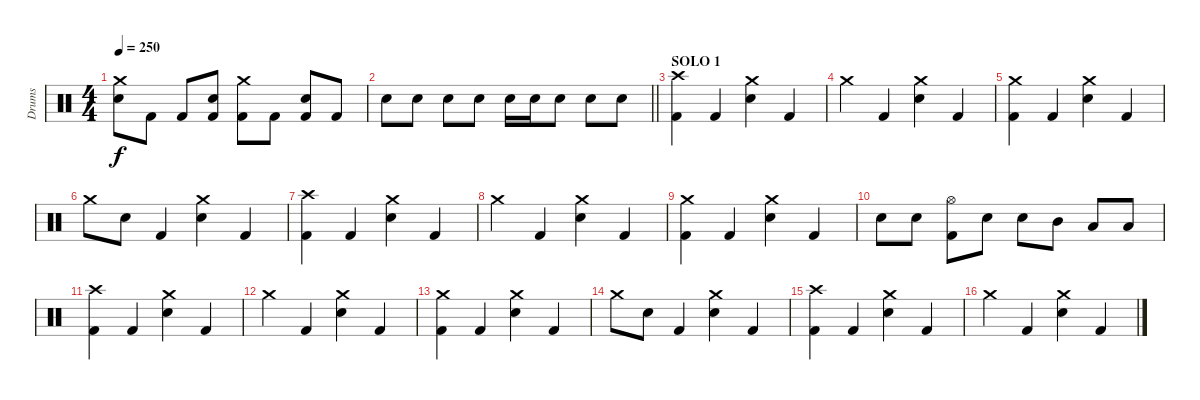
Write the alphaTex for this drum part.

\track ("Drums" "Drums") {instrument percussion}
\staff {score}
\articulation defaults
\ts (4 4)
\tempo 250
\clef neutral
\ks c
("Crash medium (hit)" "Electric Snare (hit)").8{dy f} "Kick (hit) 2".8 "Kick (hit) 2".8 ("Electric Snare (hit)" "Kick (hit) 2").8 ("Crash medium (hit)" "Kick (hit) 2").8 "Kick (hit) 2".8 ("Electric Snare (hit)" "Kick (hit) 2").8 "Kick (hit) 2".8 |
\barLineRight lightlight "Electric Snare (hit)".8 "Electric Snare (hit)".8 "Electric Snare (hit)".8 "Electric Snare (hit)".8 "Electric Snare (hit)".16 "Electric Snare (hit)".16 "Electric Snare (hit)".8 "Electric Snare (hit)".8 "Electric Snare (hit)".8
|
\section ("" "SOLO 1")
("Crash high (hit)" "Kick (hit) 2").4 "Kick (hit) 2".4 ("Crash medium (hit)" "Electric Snare (hit)").4 "Kick (hit) 2".4 |
"Crash medium (hit)".4 "Kick (hit) 2".4 ("Crash medium (hit)" "Electric Snare (hit)").4 "Kick (hit) 2".4 |
("Crash medium (hit)" "Kick (hit) 2").4 "Kick (hit) 2".4 ("Crash medium (hit)" "Electric Snare (hit)").4 "Kick (hit) 2".4 |
"Crash medium (hit)".8 "Electric Snare (hit)".8 "Kick (hit) 2".4 ("Crash medium (hit)" "Electric Snare (hit)").4 "Kick (hit) 2".4 |
("Crash high (hit)" "Kick (hit) 2").4 "Kick (hit) 2".4 ("Crash medium (hit)" "Electric Snare (hit)").4 "Kick (hit) 2".4 |
"Crash medium (hit)".4 "Kick (hit) 2".4 ("Crash medium (hit)" "Electric Snare (hit)").4 "Kick (hit) 2".4 |
("Crash medium (hit)" "Kick (hit) 2").4 "Kick (hit) 2".4 ("Crash medium (hit)" "Electric Snare (hit)").4 "Kick (hit) 2".4 |
"Electric Snare (hit)".8 "Electric Snare (hit)".8 ("Hi-Hat (open)" "Kick (hit) 2").8 "Electric Snare (hit)".8 "Electric Snare (hit)".8 "Mid Tom (hit)".8 "Low Tom (hit)".8 "Low Floor Tom (hit)".8 |
("Crash high (hit)" "Kick (hit) 2").4 "Kick (hit) 2".4 ("Crash medium (hit)" "Electric Snare (hit)").4 "Kick (hit) 2".4 |
"Crash medium (hit)".4 "Kick (hit) 2".4 ("Crash medium (hit)" "Electric Snare (hit)").4 "Kick (hit) 2".4 |
("Crash medium (hit)" "Kick (hit) 2").4 "Kick (hit) 2".4 ("Crash medium (hit)" "Electric Snare (hit)").4 "Kick (hit) 2".4 |
"Crash medium (hit)".8 "Electric Snare (hit)".8 "Kick (hit) 2".4 ("Crash medium (hit)" "Electric Snare (hit)").4 "Kick (hit) 2".4 |
("Crash high (hit)" "Kick (hit) 2").4 "Kick (hit) 2".4 ("Crash medium (hit)" "Electric Snare (hit)").4 "Kick (hit) 2".4 |
"Crash medium (hit)".4 "Kick (hit) 2".4 ("Crash medium (hit)" "Electric Snare (hit)").4 "Kick (hit) 2".4
